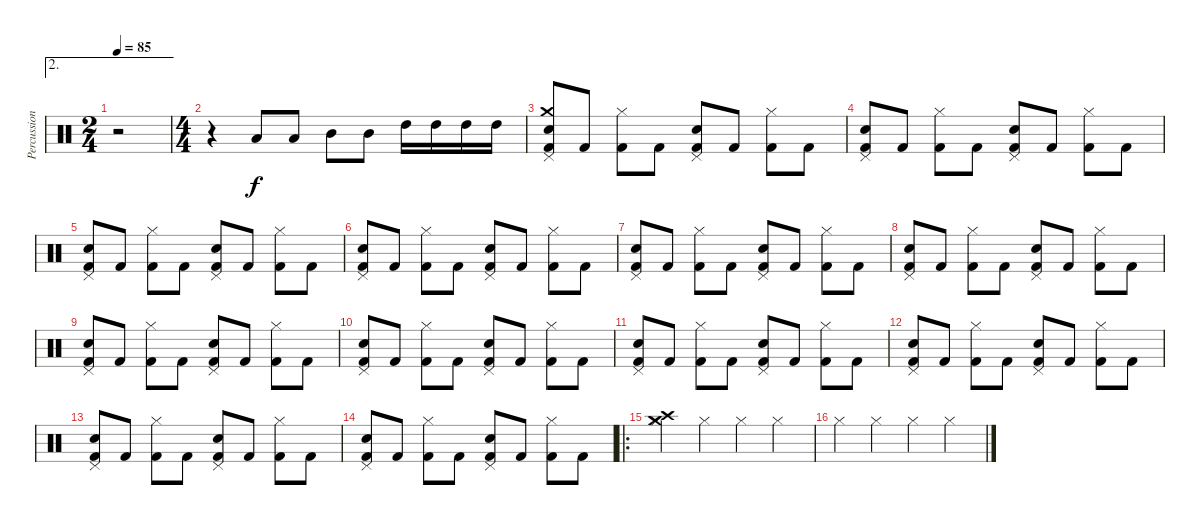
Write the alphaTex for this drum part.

\track ("Percussions" "Percussion") {instrument percussion}
\staff {score}
\articulation defaults
\ae 2
\ts (2 4)
\tempo 85
\clef neutral
\ks c
r.2{dy f} |
\ts (4 4)
r.4 "Low Tom (hit)".8 "Low Tom (hit)".8 "Mid Tom (hit)".8 "Mid Tom (hit)".8 "High Tom (hit)".16 "High Tom (hit)".16 "High Tom (hit)".16 "High Tom (hit)".16 |
("Snare (hit) 2" "Crash medium (hit)" "Pedal Hi-Hat (hit)" "Kick (hit) 2").8 "Kick (hit) 2".8 ("Hi-Hat (closed)" "Kick (hit) 2").8 "Kick (hit) 2".8 ("Pedal Hi-Hat (hit)" "Snare (hit) 2" "Kick (hit) 2").8 "Kick (hit) 2".8 ("Hi-Hat (closed)" "Kick (hit) 2").8 "Kick (hit) 2".8 |
("Snare (hit) 2" "Pedal Hi-Hat (hit)" "Kick (hit) 2").8 "Kick (hit) 2".8 ("Hi-Hat (closed)" "Kick (hit) 2").8 "Kick (hit) 2".8 ("Pedal Hi-Hat (hit)" "Snare (hit) 2" "Kick (hit) 2").8 "Kick (hit) 2".8 ("Hi-Hat (closed)" "Kick (hit) 2").8 "Kick (hit) 2".8 |
("Snare (hit) 2" "Pedal Hi-Hat (hit)" "Kick (hit) 2").8 "Kick (hit) 2".8 ("Hi-Hat (closed)" "Kick (hit) 2").8 "Kick (hit) 2".8 ("Pedal Hi-Hat (hit)" "Snare (hit) 2" "Kick (hit) 2").8 "Kick (hit) 2".8 ("Hi-Hat (closed)" "Kick (hit) 2").8 "Kick (hit) 2".8 |
("Snare (hit) 2" "Pedal Hi-Hat (hit)" "Kick (hit) 2").8 "Kick (hit) 2".8 ("Hi-Hat (closed)" "Kick (hit) 2").8 "Kick (hit) 2".8 ("Pedal Hi-Hat (hit)" "Snare (hit) 2" "Kick (hit) 2").8 "Kick (hit) 2".8 ("Hi-Hat (closed)" "Kick (hit) 2").8 "Kick (hit) 2".8 |
("Snare (hit) 2" "Pedal Hi-Hat (hit)" "Kick (hit) 2").8 "Kick (hit) 2".8 ("Hi-Hat (closed)" "Kick (hit) 2").8 "Kick (hit) 2".8 ("Pedal Hi-Hat (hit)" "Snare (hit) 2" "Kick (hit) 2").8 "Kick (hit) 2".8 ("Hi-Hat (closed)" "Kick (hit) 2").8 "Kick (hit) 2".8 |
("Snare (hit) 2" "Pedal Hi-Hat (hit)" "Kick (hit) 2").8 "Kick (hit) 2".8 ("Hi-Hat (closed)" "Kick (hit) 2").8 "Kick (hit) 2".8 ("Pedal Hi-Hat (hit)" "Snare (hit) 2" "Kick (hit) 2").8 "Kick (hit) 2".8 ("Hi-Hat (closed)" "Kick (hit) 2").8 "Kick (hit) 2".8 |
("Snare (hit) 2" "Pedal Hi-Hat (hit)" "Kick (hit) 2").8 "Kick (hit) 2".8 ("Hi-Hat (closed)" "Kick (hit) 2").8 "Kick (hit) 2".8 ("Pedal Hi-Hat (hit)" "Snare (hit) 2" "Kick (hit) 2").8 "Kick (hit) 2".8 ("Hi-Hat (closed)" "Kick (hit) 2").8 "Kick (hit) 2".8 |
("Snare (hit) 2" "Pedal Hi-Hat (hit)" "Kick (hit) 2").8 "Kick (hit) 2".8 ("Hi-Hat (closed)" "Kick (hit) 2").8 "Kick (hit) 2".8 ("Pedal Hi-Hat (hit)" "Snare (hit) 2" "Kick (hit) 2").8 "Kick (hit) 2".8 ("Hi-Hat (closed)" "Kick (hit) 2").8 "Kick (hit) 2".8 |
("Snare (hit) 2" "Pedal Hi-Hat (hit)" "Kick (hit) 2").8 "Kick (hit) 2".8 ("Hi-Hat (closed)" "Kick (hit) 2").8 "Kick (hit) 2".8 ("Pedal Hi-Hat (hit)" "Snare (hit) 2" "Kick (hit) 2").8 "Kick (hit) 2".8 ("Hi-Hat (closed)" "Kick (hit) 2").8 "Kick (hit) 2".8 |
("Snare (hit) 2" "Pedal Hi-Hat (hit)" "Kick (hit) 2").8 "Kick (hit) 2".8 ("Hi-Hat (closed)" "Kick (hit) 2").8 "Kick (hit) 2".8 ("Pedal Hi-Hat (hit)" "Snare (hit) 2" "Kick (hit) 2").8 "Kick (hit) 2".8 ("Hi-Hat (closed)" "Kick (hit) 2").8 "Kick (hit) 2".8 |
("Snare (hit) 2" "Pedal Hi-Hat (hit)" "Kick (hit) 2").8 "Kick (hit) 2".8 ("Hi-Hat (closed)" "Kick (hit) 2").8 "Kick (hit) 2".8 ("Pedal Hi-Hat (hit)" "Snare (hit) 2" "Kick (hit) 2").8 "Kick (hit) 2".8 ("Hi-Hat (closed)" "Kick (hit) 2").8 "Kick (hit) 2".8 |
("Snare (hit) 2" "Pedal Hi-Hat (hit)" "Kick (hit) 2").8 "Kick (hit) 2".8 ("Hi-Hat (closed)" "Kick (hit) 2").8 "Kick (hit) 2".8 ("Pedal Hi-Hat (hit)" "Snare (hit) 2" "Kick (hit) 2").8 "Kick (hit) 2".8 ("Hi-Hat (closed)" "Kick (hit) 2").8 "Kick (hit) 2".8 |
\ro
("Crash medium (hit)" "Crash high (hit)" "Hi-Hat (closed)").4 "Hi-Hat (closed)".4 "Hi-Hat (closed)".4 "Hi-Hat (closed)".4 |
"Hi-Hat (closed)".4 "Hi-Hat (closed)".4 "Hi-Hat (closed)".4 "Hi-Hat (closed)".4
